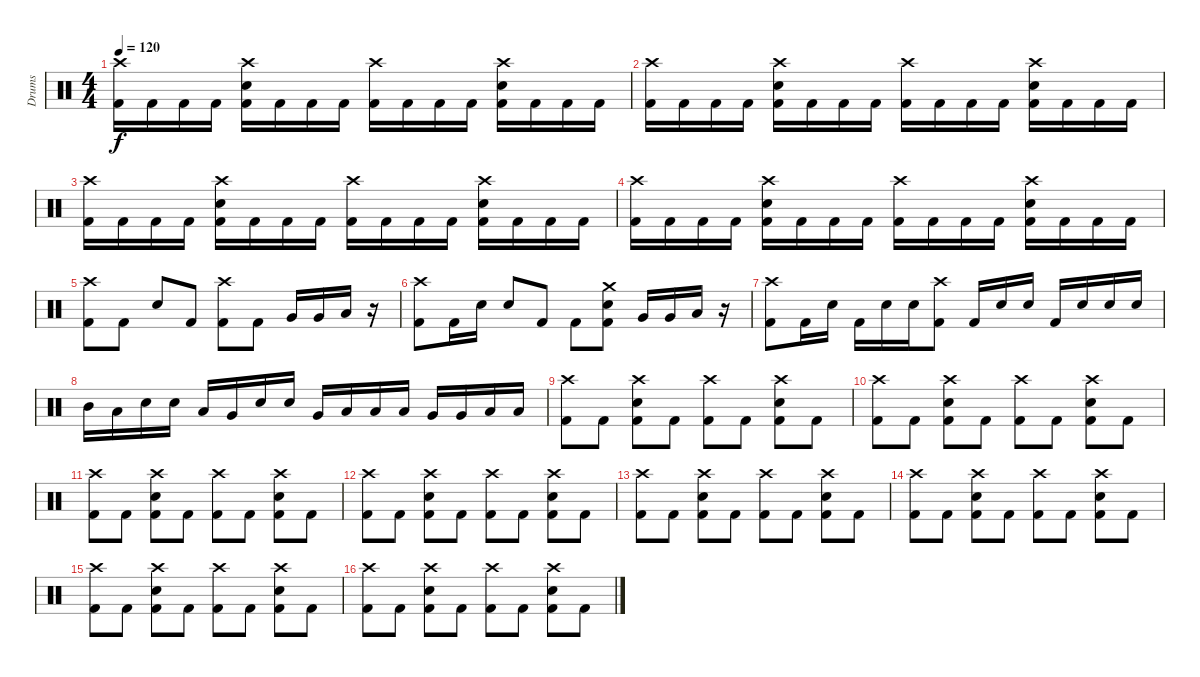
\track ("Drums" "Drums") {instrument percussion}
\staff {score}
\articulation defaults
\ts (4 4)
\tempo 120
\clef neutral
\ks c
("Crash high (hit)" "Kick (hit) 2").16{dy f} "Kick (hit) 2".16 "Kick (hit) 2".16 "Kick (hit) 2".16 ("Crash high (hit)" "Snare (hit) 2" "Kick (hit) 2").16 "Kick (hit) 2".16 "Kick (hit) 2".16 "Kick (hit) 2".16 ("Crash high (hit)" "Kick (hit) 2").16 "Kick (hit) 2".16 "Kick (hit) 2".16 "Kick (hit) 2".16 ("Crash high (hit)" "Snare (hit) 2" "Kick (hit) 2").16 "Kick (hit) 2".16 "Kick (hit) 2".16 "Kick (hit) 2".16 |
("Crash high (hit)" "Kick (hit) 2").16 "Kick (hit) 2".16 "Kick (hit) 2".16 "Kick (hit) 2".16 ("Crash high (hit)" "Snare (hit) 2" "Kick (hit) 2").16 "Kick (hit) 2".16 "Kick (hit) 2".16 "Kick (hit) 2".16 ("Crash high (hit)" "Kick (hit) 2").16 "Kick (hit) 2".16 "Kick (hit) 2".16 "Kick (hit) 2".16 ("Crash high (hit)" "Snare (hit) 2" "Kick (hit) 2").16 "Kick (hit) 2".16 "Kick (hit) 2".16 "Kick (hit) 2".16 |
("Crash high (hit)" "Kick (hit) 2").16 "Kick (hit) 2".16 "Kick (hit) 2".16 "Kick (hit) 2".16 ("Crash high (hit)" "Snare (hit) 2" "Kick (hit) 2").16 "Kick (hit) 2".16 "Kick (hit) 2".16 "Kick (hit) 2".16 ("Crash high (hit)" "Kick (hit) 2").16 "Kick (hit) 2".16 "Kick (hit) 2".16 "Kick (hit) 2".16 ("Crash high (hit)" "Snare (hit) 2" "Kick (hit) 2").16 "Kick (hit) 2".16 "Kick (hit) 2".16 "Kick (hit) 2".16 |
("Crash high (hit)" "Kick (hit) 2").16 "Kick (hit) 2".16 "Kick (hit) 2".16 "Kick (hit) 2".16 ("Crash high (hit)" "Snare (hit) 2" "Kick (hit) 2").16 "Kick (hit) 2".16 "Kick (hit) 2".16 "Kick (hit) 2".16 ("Crash high (hit)" "Kick (hit) 2").16 "Kick (hit) 2".16 "Kick (hit) 2".16 "Kick (hit) 2".16 ("Crash high (hit)" "Snare (hit) 2" "Kick (hit) 2").16 "Kick (hit) 2".16 "Kick (hit) 2".16 "Kick (hit) 2".16 |
("Crash high (hit)" "Kick (hit) 2").8 "Kick (hit) 2".8 "Snare (hit) 2".8 "Kick (hit) 2".8 ("Crash high (hit)" "Kick (hit) 2").8 "Kick (hit) 2".8 "Very Low Tom (hit)".16 "Very Low Tom (hit)".16 "Low Floor Tom (hit)".16 r.16 |
("Crash high (hit)" "Kick (hit) 2").8 "Kick (hit) 2".16 "Snare (hit) 2".16 "Snare (hit) 2".8 "Kick (hit) 2".8 "Kick (hit) 2".8 ("Crash medium (hit)" "Snare (hit) 2" "Kick (hit) 2").8 "Very Low Tom (hit)".16 "Very Low Tom (hit)".16 "Low Floor Tom (hit)".16 r.16 |
("Crash high (hit)" "Kick (hit) 2").8 "Kick (hit) 2".16 "Snare (hit) 2".16 "Kick (hit) 2".16 "Snare (hit) 2".16 "Snare (hit) 2".16 ("Crash high (hit)" "Kick (hit) 2").8 "Kick (hit) 2".16 "Snare (hit) 2".16 "Snare (hit) 2".16 "Kick (hit) 2".16 "Snare (hit) 2".16 "Snare (hit) 2".16 "Snare (hit) 2".16 |
"Mid Tom (hit)".16 "Low Tom (hit)".16 "Snare (hit) 2".16 "Snare (hit) 2".16 "Low Tom (hit)".16 "Very Low Tom (hit)".16 "Snare (hit) 2".16 "Snare (hit) 2".16 "Very Low Tom (hit)".16 "Low Floor Tom (hit)".16 "Low Tom (hit)".16 "Low Tom (hit)".16 "Very Low Tom (hit)".16 "Very Low Tom (hit)".16 "Low Floor Tom (hit)".16 "Low Floor Tom (hit)".16 |
("Crash high (hit)" "Kick (hit) 2").8 "Kick (hit) 2".8 ("Crash high (hit)" "Snare (hit) 2" "Kick (hit) 2").8 "Kick (hit) 2".8 ("Crash high (hit)" "Kick (hit) 2").8 "Kick (hit) 2".8 ("Crash high (hit)" "Snare (hit) 2" "Kick (hit) 2").8 "Kick (hit) 2".8 |
("Crash high (hit)" "Kick (hit) 2").8 "Kick (hit) 2".8 ("Crash high (hit)" "Snare (hit) 2" "Kick (hit) 2").8 "Kick (hit) 2".8 ("Crash high (hit)" "Kick (hit) 2").8 "Kick (hit) 2".8 ("Crash high (hit)" "Snare (hit) 2" "Kick (hit) 2").8 "Kick (hit) 2".8 |
("Crash high (hit)" "Kick (hit) 2").8 "Kick (hit) 2".8 ("Crash high (hit)" "Snare (hit) 2" "Kick (hit) 2").8 "Kick (hit) 2".8 ("Crash high (hit)" "Kick (hit) 2").8 "Kick (hit) 2".8 ("Crash high (hit)" "Snare (hit) 2" "Kick (hit) 2").8 "Kick (hit) 2".8 |
("Crash high (hit)" "Kick (hit) 2").8 "Kick (hit) 2".8 ("Crash high (hit)" "Snare (hit) 2" "Kick (hit) 2").8 "Kick (hit) 2".8 ("Crash high (hit)" "Kick (hit) 2").8 "Kick (hit) 2".8 ("Crash high (hit)" "Snare (hit) 2" "Kick (hit) 2").8 "Kick (hit) 2".8 |
("Crash high (hit)" "Kick (hit) 2").8 "Kick (hit) 2".8 ("Crash high (hit)" "Snare (hit) 2" "Kick (hit) 2").8 "Kick (hit) 2".8 ("Crash high (hit)" "Kick (hit) 2").8 "Kick (hit) 2".8 ("Crash high (hit)" "Snare (hit) 2" "Kick (hit) 2").8 "Kick (hit) 2".8 |
("Crash high (hit)" "Kick (hit) 2").8 "Kick (hit) 2".8 ("Crash high (hit)" "Snare (hit) 2" "Kick (hit) 2").8 "Kick (hit) 2".8 ("Crash high (hit)" "Kick (hit) 2").8 "Kick (hit) 2".8 ("Crash high (hit)" "Snare (hit) 2" "Kick (hit) 2").8 "Kick (hit) 2".8 |
("Crash high (hit)" "Kick (hit) 2").8 "Kick (hit) 2".8 ("Crash high (hit)" "Snare (hit) 2" "Kick (hit) 2").8 "Kick (hit) 2".8 ("Crash high (hit)" "Kick (hit) 2").8 "Kick (hit) 2".8 ("Crash high (hit)" "Snare (hit) 2" "Kick (hit) 2").8 "Kick (hit) 2".8 |
("Crash high (hit)" "Kick (hit) 2").8 "Kick (hit) 2".8 ("Crash high (hit)" "Snare (hit) 2" "Kick (hit) 2").8 "Kick (hit) 2".8 ("Crash high (hit)" "Kick (hit) 2").8 "Kick (hit) 2".8 ("Crash high (hit)" "Snare (hit) 2" "Kick (hit) 2").8 "Kick (hit) 2".8
